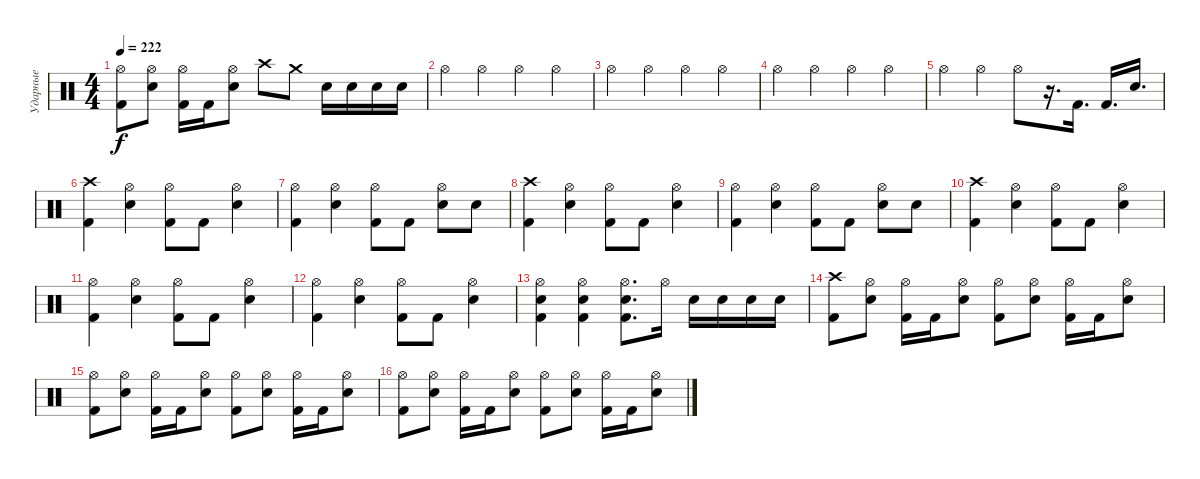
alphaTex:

\track ("Ударные" "Ударные") {instrument percussion}
\staff {score}
\articulation defaults
\ts (4 4)
\tempo 222
\clef neutral
\ks c
("Hi-Hat (open)" "Kick (hit) 2").8{dy f} ("Hi-Hat (open)" "Electric Snare (hit)").8 ("Hi-Hat (open)" "Kick (hit) 2").16 "Kick (hit) 2".16 ("Hi-Hat (open)" "Electric Snare (hit)").8 "Crash high (hit)".8 "Crash medium (hit)".8 "Electric Snare (hit)".16 "Electric Snare (hit)".16 "Electric Snare (hit)".16 "Electric Snare (hit)".16 |
"Hi-Hat (open)".4 "Hi-Hat (open)".4 "Hi-Hat (open)".4 "Hi-Hat (open)".4 |
"Hi-Hat (open)".4 "Hi-Hat (open)".4 "Hi-Hat (open)".4 "Hi-Hat (open)".4 |
"Hi-Hat (open)".4 "Hi-Hat (open)".4 "Hi-Hat (open)".4 "Hi-Hat (open)".4 |
"Hi-Hat (open)".4 "Hi-Hat (open)".4 "Hi-Hat (open)".8 r.16{d} "Kick (hit) 2".16{d} "Kick (hit) 2".16{d} "Electric Snare (hit)".16{d} |
("Crash high (hit)" "Kick (hit) 2").4 ("Hi-Hat (open)" "Electric Snare (hit)").4 ("Hi-Hat (open)" "Kick (hit) 2").8 "Kick (hit) 2".8 ("Hi-Hat (open)" "Electric Snare (hit)").4 |
("Hi-Hat (open)" "Kick (hit) 2").4 ("Hi-Hat (open)" "Electric Snare (hit)").4 ("Hi-Hat (open)" "Kick (hit) 2").8 "Kick (hit) 2".8 ("Hi-Hat (open)" "Electric Snare (hit)").8 "Electric Snare (hit)".8 |
("Crash high (hit)" "Kick (hit) 2").4 ("Hi-Hat (open)" "Electric Snare (hit)").4 ("Hi-Hat (open)" "Kick (hit) 2").8 "Kick (hit) 2".8 ("Hi-Hat (open)" "Electric Snare (hit)").4 |
("Hi-Hat (open)" "Kick (hit) 2").4 ("Hi-Hat (open)" "Electric Snare (hit)").4 ("Hi-Hat (open)" "Kick (hit) 2").8 "Kick (hit) 2".8 ("Hi-Hat (open)" "Electric Snare (hit)").8 "Electric Snare (hit)".8 |
("Crash high (hit)" "Kick (hit) 2").4 ("Hi-Hat (open)" "Electric Snare (hit)").4 ("Hi-Hat (open)" "Kick (hit) 2").8 "Kick (hit) 2".8 ("Hi-Hat (open)" "Electric Snare (hit)").4 |
("Hi-Hat (open)" "Kick (hit) 2").4 ("Hi-Hat (open)" "Electric Snare (hit)").4 ("Hi-Hat (open)" "Kick (hit) 2").8 "Kick (hit) 2".8 ("Hi-Hat (open)" "Electric Snare (hit)").4 |
("Hi-Hat (open)" "Kick (hit) 2").4 ("Hi-Hat (open)" "Electric Snare (hit)").4 ("Hi-Hat (open)" "Kick (hit) 2").8 "Kick (hit) 2".8 ("Hi-Hat (open)" "Electric Snare (hit)").4 |
("Hi-Hat (open)" "Kick (hit) 2" "Electric Snare (hit)").4 ("Hi-Hat (open)" "Kick (hit) 2" "Electric Snare (hit)").4 ("Hi-Hat (open)" "Kick (hit) 2" "Electric Snare (hit)").8{d} "Hi-Hat (open)".16 "Electric Snare (hit)".16 "Electric Snare (hit)".16 "Electric Snare (hit)".16 "Electric Snare (hit)".16 |
("Crash high (hit)" "Kick (hit) 2").8 ("Hi-Hat (open)" "Electric Snare (hit)").8 ("Hi-Hat (open)" "Kick (hit) 2").16 "Kick (hit) 2".16 ("Hi-Hat (open)" "Electric Snare (hit)").8 ("Hi-Hat (open)" "Kick (hit) 2").8 ("Hi-Hat (open)" "Electric Snare (hit)").8 ("Hi-Hat (open)" "Kick (hit) 2").16 "Kick (hit) 2".16 ("Hi-Hat (open)" "Electric Snare (hit)").8 |
("Hi-Hat (open)" "Kick (hit) 2").8 ("Hi-Hat (open)" "Electric Snare (hit)").8 ("Hi-Hat (open)" "Kick (hit) 2").16 "Kick (hit) 2".16 ("Hi-Hat (open)" "Electric Snare (hit)").8 ("Hi-Hat (open)" "Kick (hit) 2").8 ("Hi-Hat (open)" "Electric Snare (hit)").8 ("Hi-Hat (open)" "Kick (hit) 2").16 "Kick (hit) 2".16 ("Hi-Hat (open)" "Electric Snare (hit)").8 |
("Hi-Hat (open)" "Kick (hit) 2").8 ("Hi-Hat (open)" "Electric Snare (hit)").8 ("Hi-Hat (open)" "Kick (hit) 2").16 "Kick (hit) 2".16 ("Hi-Hat (open)" "Electric Snare (hit)").8 ("Hi-Hat (open)" "Kick (hit) 2").8 ("Hi-Hat (open)" "Electric Snare (hit)").8 ("Hi-Hat (open)" "Kick (hit) 2").16 "Kick (hit) 2".16 ("Hi-Hat (open)" "Electric Snare (hit)").8
